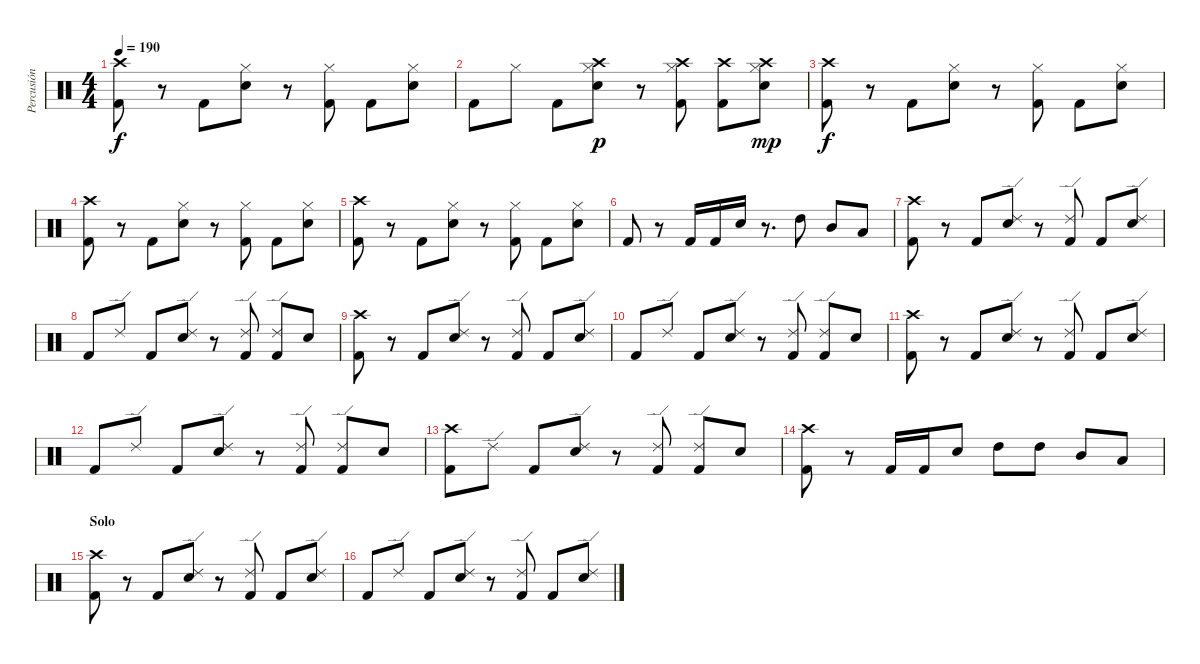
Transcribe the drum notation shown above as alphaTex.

\track ("Percusión" "Percusión") {instrument percussion}
\staff {score}
\articulation defaults
\ts (4 4)
\tempo 190
\clef neutral
\ks c
("Crash high (hit)" "Kick (hit) 2").8{dy f} r.8 "Kick (hit) 2".8 ("Hi-Hat (closed)" "Snare (hit) 2").8 r.8 ("Hi-Hat (closed)" "Kick (hit) 2").8 "Kick (hit) 2".8 ("Hi-Hat (closed)" "Snare (hit) 2").8 |
"Kick (hit) 2".8 "Hi-Hat (closed)".8 "Kick (hit) 2".8 ("Crash high (hit)" "Hi-Hat (closed)" "Snare (hit) 2").8{dy p} r.8 ("Crash high (hit)" "Hi-Hat (closed)" "Kick (hit) 2").8 ("Crash high (hit)" "Kick (hit) 2").8 ("Crash high (hit)" "Hi-Hat (closed)" "Snare (hit) 2").8{dy mp} |
("Crash high (hit)" "Kick (hit) 2").8{dy f} r.8 "Kick (hit) 2".8 ("Hi-Hat (closed)" "Snare (hit) 2").8 r.8 ("Hi-Hat (closed)" "Kick (hit) 2").8 "Kick (hit) 2".8 ("Hi-Hat (closed)" "Snare (hit) 2").8 |
("Crash high (hit)" "Kick (hit) 2").8 r.8 "Kick (hit) 2".8 ("Hi-Hat (closed)" "Snare (hit) 2").8 r.8 ("Hi-Hat (closed)" "Kick (hit) 2").8 "Kick (hit) 2".8 ("Hi-Hat (closed)" "Snare (hit) 2").8 |
("Crash high (hit)" "Kick (hit) 2").8 r.8 "Kick (hit) 2".8 ("Hi-Hat (closed)" "Snare (hit) 2").8 r.8 ("Hi-Hat (closed)" "Kick (hit) 2").8 "Kick (hit) 2".8 ("Hi-Hat (closed)" "Snare (hit) 2").8 |
"Kick (hit) 2".8 r.8 "Kick (hit) 2".16 "Kick (hit) 2".16 "Snare (hit) 2".16 r.8{d} "High Tom (hit)".8 "Mid Tom (hit)".8 "Low Tom (hit)".8 |
("Crash high (hit)" "Kick (hit) 2").8 r.8 "Kick (hit) 2".8 ("Ride (edge) 2" "Snare (hit) 2").8 r.8 ("Ride (edge) 2" "Kick (hit) 2").8 "Kick (hit) 2".8 ("Ride (edge) 2" "Snare (hit) 2").8 |
"Kick (hit) 2".8 "Ride (edge) 2".8 "Kick (hit) 2".8 ("Ride (edge) 2" "Snare (hit) 2").8 r.8 ("Ride (edge) 2" "Kick (hit) 2").8 ("Ride (edge) 2" "Kick (hit) 2").8 "Snare (hit) 2".8 |
("Crash high (hit)" "Kick (hit) 2").8 r.8 "Kick (hit) 2".8 ("Ride (edge) 2" "Snare (hit) 2").8 r.8 ("Ride (edge) 2" "Kick (hit) 2").8 "Kick (hit) 2".8 ("Ride (edge) 2" "Snare (hit) 2").8 |
"Kick (hit) 2".8 "Ride (edge) 2".8 "Kick (hit) 2".8 ("Ride (edge) 2" "Snare (hit) 2").8 r.8 ("Ride (edge) 2" "Kick (hit) 2").8 ("Ride (edge) 2" "Kick (hit) 2").8 "Snare (hit) 2".8 |
("Crash high (hit)" "Kick (hit) 2").8 r.8 "Kick (hit) 2".8 ("Ride (edge) 2" "Snare (hit) 2").8 r.8 ("Ride (edge) 2" "Kick (hit) 2").8 "Kick (hit) 2".8 ("Ride (edge) 2" "Snare (hit) 2").8 |
"Kick (hit) 2".8 "Ride (edge) 2".8 "Kick (hit) 2".8 ("Ride (edge) 2" "Snare (hit) 2").8 r.8 ("Ride (edge) 2" "Kick (hit) 2").8 ("Ride (edge) 2" "Kick (hit) 2").8 "Snare (hit) 2".8 |
("Crash high (hit)" "Kick (hit) 2").8 "Ride (edge) 2".8 "Kick (hit) 2".8 ("Ride (edge) 2" "Snare (hit) 2").8 r.8 ("Ride (edge) 2" "Kick (hit) 2").8 ("Ride (edge) 2" "Kick (hit) 2").8 "Snare (hit) 2".8 |
("Crash high (hit)" "Kick (hit) 2").8 r.8 "Kick (hit) 2".16 "Kick (hit) 2".16 "Snare (hit) 2".8 "High Tom (hit)".8 "High Tom (hit)".8 "Mid Tom (hit)".8 "Low Tom (hit)".8 |
\section ("" "Solo")
("Crash high (hit)" "Kick (hit) 2").8 r.8 "Kick (hit) 2".8 ("Ride (edge) 2" "Snare (hit) 2").8 r.8 ("Ride (edge) 2" "Kick (hit) 2").8 "Kick (hit) 2".8 ("Ride (edge) 2" "Snare (hit) 2").8 |
"Kick (hit) 2".8 "Ride (edge) 2".8 "Kick (hit) 2".8 ("Ride (edge) 2" "Snare (hit) 2").8 r.8 ("Ride (edge) 2" "Kick (hit) 2").8 "Kick (hit) 2".8 ("Ride (edge) 2" "Snare (hit) 2").8
